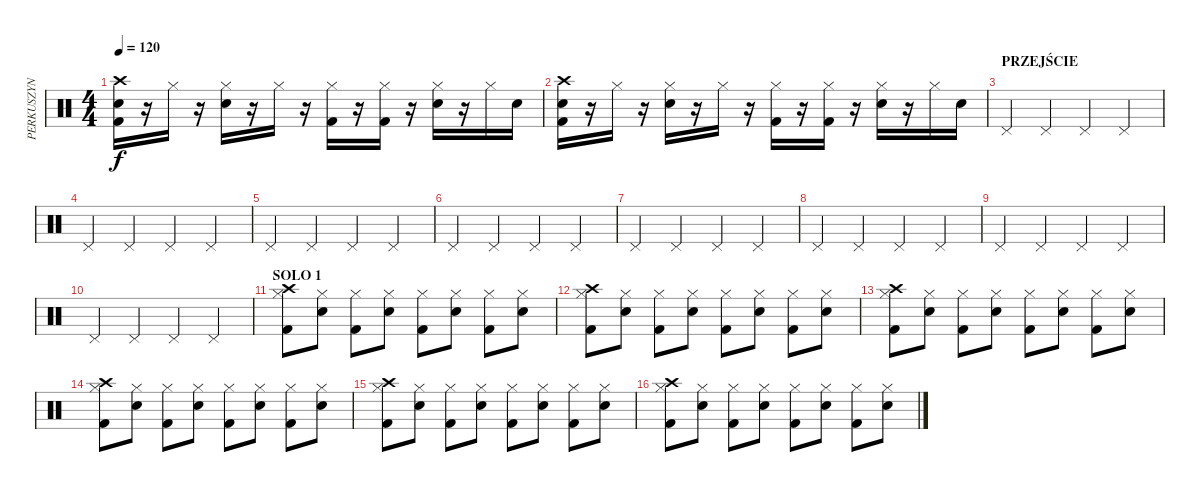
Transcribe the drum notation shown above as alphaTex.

\track ("PERKUSZYN" "PERKUSZYN") {instrument percussion}
\staff {score}
\articulation defaults
\ts (4 4)
\tempo 120
\clef neutral
\ks c
("Crash high (hit)" "Snare (hit) 2" "Kick (hit) 2").16{dy f} r.16 "Hi-Hat (closed)".16 r.16 ("Hi-Hat (closed)" "Snare (hit) 2").16 r.16 "Hi-Hat (closed)".16 r.16 ("Hi-Hat (closed)" "Kick (hit) 2").16 r.16 ("Hi-Hat (closed)" "Kick (hit) 2").16 r.16 ("Hi-Hat (closed)" "Snare (hit) 2").16 r.16 "Hi-Hat (closed)".16 "Snare (hit) 2".16 |
("Crash high (hit)" "Snare (hit) 2" "Kick (hit) 2").16 r.16 "Hi-Hat (closed)".16 r.16 ("Hi-Hat (closed)" "Snare (hit) 2").16 r.16 "Hi-Hat (closed)".16 r.16 ("Hi-Hat (closed)" "Kick (hit) 2").16 r.16 ("Hi-Hat (closed)" "Kick (hit) 2").16 r.16 ("Hi-Hat (closed)" "Snare (hit) 2").16 r.16 "Hi-Hat (closed)".16 "Snare (hit) 2".16 |
\section ("" "PRZEJŚCIE")
"Pedal Hi-Hat (hit)".4 "Pedal Hi-Hat (hit)".4 "Pedal Hi-Hat (hit)".4 "Pedal Hi-Hat (hit)".4 |
"Pedal Hi-Hat (hit)".4 "Pedal Hi-Hat (hit)".4 "Pedal Hi-Hat (hit)".4 "Pedal Hi-Hat (hit)".4 |
"Pedal Hi-Hat (hit)".4 "Pedal Hi-Hat (hit)".4 "Pedal Hi-Hat (hit)".4 "Pedal Hi-Hat (hit)".4 |
"Pedal Hi-Hat (hit)".4 "Pedal Hi-Hat (hit)".4 "Pedal Hi-Hat (hit)".4 "Pedal Hi-Hat (hit)".4 |
"Pedal Hi-Hat (hit)".4 "Pedal Hi-Hat (hit)".4 "Pedal Hi-Hat (hit)".4 "Pedal Hi-Hat (hit)".4 |
"Pedal Hi-Hat (hit)".4 "Pedal Hi-Hat (hit)".4 "Pedal Hi-Hat (hit)".4 "Pedal Hi-Hat (hit)".4 |
"Pedal Hi-Hat (hit)".4 "Pedal Hi-Hat (hit)".4 "Pedal Hi-Hat (hit)".4 "Pedal Hi-Hat (hit)".4 |
"Pedal Hi-Hat (hit)".4 "Pedal Hi-Hat (hit)".4 "Pedal Hi-Hat (hit)".4 "Pedal Hi-Hat (hit)".4 |
\section ("" "SOLO 1")
("Crash high (hit)" "Kick (hit) 2" "Hi-Hat (closed)").8 ("Snare (hit) 2" "Hi-Hat (closed)").8 ("Kick (hit) 2" "Hi-Hat (closed)").8 ("Snare (hit) 2" "Hi-Hat (closed)").8 ("Kick (hit) 2" "Hi-Hat (closed)").8 ("Snare (hit) 2" "Hi-Hat (closed)").8 ("Kick (hit) 2" "Hi-Hat (closed)").8 ("Snare (hit) 2" "Hi-Hat (closed)").8 |
("Crash high (hit)" "Kick (hit) 2" "Hi-Hat (closed)").8 ("Snare (hit) 2" "Hi-Hat (closed)").8 ("Kick (hit) 2" "Hi-Hat (closed)").8 ("Snare (hit) 2" "Hi-Hat (closed)").8 ("Kick (hit) 2" "Hi-Hat (closed)").8 ("Snare (hit) 2" "Hi-Hat (closed)").8 ("Kick (hit) 2" "Hi-Hat (closed)").8 ("Snare (hit) 2" "Hi-Hat (closed)").8 |
("Crash high (hit)" "Kick (hit) 2" "Hi-Hat (closed)").8 ("Snare (hit) 2" "Hi-Hat (closed)").8 ("Kick (hit) 2" "Hi-Hat (closed)").8 ("Snare (hit) 2" "Hi-Hat (closed)").8 ("Kick (hit) 2" "Hi-Hat (closed)").8 ("Snare (hit) 2" "Hi-Hat (closed)").8 ("Kick (hit) 2" "Hi-Hat (closed)").8 ("Snare (hit) 2" "Hi-Hat (closed)").8 |
("Crash high (hit)" "Kick (hit) 2" "Hi-Hat (closed)").8 ("Snare (hit) 2" "Hi-Hat (closed)").8 ("Kick (hit) 2" "Hi-Hat (closed)").8 ("Snare (hit) 2" "Hi-Hat (closed)").8 ("Kick (hit) 2" "Hi-Hat (closed)").8 ("Snare (hit) 2" "Hi-Hat (closed)").8 ("Kick (hit) 2" "Hi-Hat (closed)").8 ("Snare (hit) 2" "Hi-Hat (closed)").8 |
("Crash high (hit)" "Kick (hit) 2" "Hi-Hat (closed)").8 ("Snare (hit) 2" "Hi-Hat (closed)").8 ("Kick (hit) 2" "Hi-Hat (closed)").8 ("Snare (hit) 2" "Hi-Hat (closed)").8 ("Kick (hit) 2" "Hi-Hat (closed)").8 ("Snare (hit) 2" "Hi-Hat (closed)").8 ("Kick (hit) 2" "Hi-Hat (closed)").8 ("Snare (hit) 2" "Hi-Hat (closed)").8 |
("Crash high (hit)" "Kick (hit) 2" "Hi-Hat (closed)").8 ("Snare (hit) 2" "Hi-Hat (closed)").8 ("Kick (hit) 2" "Hi-Hat (closed)").8 ("Snare (hit) 2" "Hi-Hat (closed)").8 ("Kick (hit) 2" "Hi-Hat (closed)").8 ("Snare (hit) 2" "Hi-Hat (closed)").8 ("Kick (hit) 2" "Hi-Hat (closed)").8 ("Snare (hit) 2" "Hi-Hat (closed)").8
